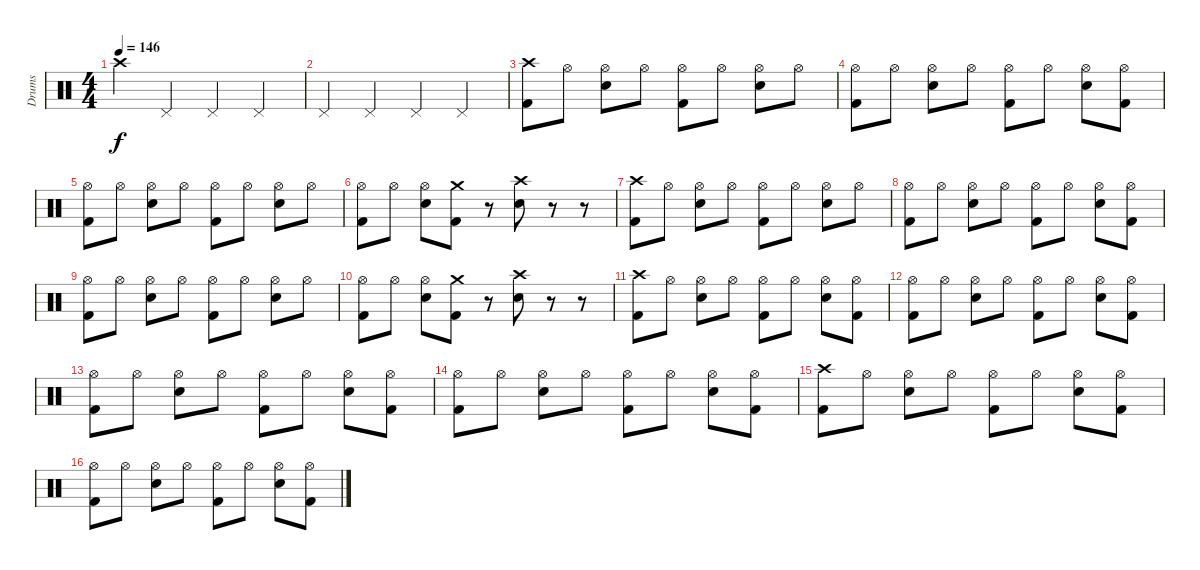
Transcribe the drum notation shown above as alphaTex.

\track ("Drums" "Drums") {instrument percussion}
\staff {score}
\articulation defaults
\ts (4 4)
\tempo 146
\clef neutral
\ks c "Crash high (hit)".4{dy f} "Pedal Hi-Hat (hit)".4 "Pedal Hi-Hat (hit)".4 "Pedal Hi-Hat (hit)".4
|
"Pedal Hi-Hat (hit)".4 "Pedal Hi-Hat (hit)".4 "Pedal Hi-Hat (hit)".4 "Pedal Hi-Hat (hit)".4 |
("Crash high (hit)" "Kick (hit) 2").8 "Hi-Hat (open)".8 ("Hi-Hat (open)" "Snare (hit) 2").8 "Hi-Hat (open)".8 ("Hi-Hat (open)" "Kick (hit) 2").8 "Hi-Hat (open)".8 ("Hi-Hat (open)" "Snare (hit) 2").8 "Hi-Hat (open)".8 |
("Hi-Hat (open)" "Kick (hit) 2").8 "Hi-Hat (open)".8 ("Hi-Hat (open)" "Snare (hit) 2").8 "Hi-Hat (open)".8 ("Hi-Hat (open)" "Kick (hit) 2").8 "Hi-Hat (open)".8 ("Hi-Hat (open)" "Snare (hit) 2").8 ("Hi-Hat (open)" "Kick (hit) 2").8 |
("Hi-Hat (open)" "Kick (hit) 2").8 "Hi-Hat (open)".8 ("Hi-Hat (open)" "Snare (hit) 2").8 "Hi-Hat (open)".8 ("Hi-Hat (open)" "Kick (hit) 2").8 "Hi-Hat (open)".8 ("Hi-Hat (open)" "Snare (hit) 2").8 "Hi-Hat (open)".8 |
("Hi-Hat (open)" "Kick (hit) 2").8 "Hi-Hat (open)".8 ("Hi-Hat (open)" "Snare (hit) 2").8 ("Crash medium (hit)" "Kick (hit) 2").8 r.8 ("Crash high (hit)" "Snare (hit) 2").8 r.8 r.8 |
("Crash high (hit)" "Kick (hit) 2").8 "Hi-Hat (open)".8 ("Hi-Hat (open)" "Snare (hit) 2").8 "Hi-Hat (open)".8 ("Hi-Hat (open)" "Kick (hit) 2").8 "Hi-Hat (open)".8 ("Hi-Hat (open)" "Snare (hit) 2").8 "Hi-Hat (open)".8 |
("Hi-Hat (open)" "Kick (hit) 2").8 "Hi-Hat (open)".8 ("Hi-Hat (open)" "Snare (hit) 2").8 "Hi-Hat (open)".8 ("Hi-Hat (open)" "Kick (hit) 2").8 "Hi-Hat (open)".8 ("Hi-Hat (open)" "Snare (hit) 2").8 ("Hi-Hat (open)" "Kick (hit) 2").8 |
("Hi-Hat (open)" "Kick (hit) 2").8 "Hi-Hat (open)".8 ("Hi-Hat (open)" "Snare (hit) 2").8 "Hi-Hat (open)".8 ("Hi-Hat (open)" "Kick (hit) 2").8 "Hi-Hat (open)".8 ("Hi-Hat (open)" "Snare (hit) 2").8 "Hi-Hat (open)".8 |
("Hi-Hat (open)" "Kick (hit) 2").8 "Hi-Hat (open)".8 ("Hi-Hat (open)" "Snare (hit) 2").8 ("Crash medium (hit)" "Kick (hit) 2").8 r.8 ("Crash high (hit)" "Snare (hit) 2").8 r.8 r.8 |
("Crash high (hit)" "Kick (hit) 2").8 "Hi-Hat (open)".8 ("Hi-Hat (open)" "Snare (hit) 2").8 "Hi-Hat (open)".8 ("Hi-Hat (open)" "Kick (hit) 2").8 "Hi-Hat (open)".8 ("Hi-Hat (open)" "Snare (hit) 2").8 ("Hi-Hat (open)" "Kick (hit) 2").8 |
("Hi-Hat (open)" "Kick (hit) 2").8 "Hi-Hat (open)".8 ("Hi-Hat (open)" "Snare (hit) 2").8 "Hi-Hat (open)".8 ("Hi-Hat (open)" "Kick (hit) 2").8 "Hi-Hat (open)".8 ("Hi-Hat (open)" "Snare (hit) 2").8 ("Hi-Hat (open)" "Kick (hit) 2").8 |
("Hi-Hat (open)" "Kick (hit) 2").8 "Hi-Hat (open)".8 ("Hi-Hat (open)" "Snare (hit) 2").8 "Hi-Hat (open)".8 ("Hi-Hat (open)" "Kick (hit) 2").8 "Hi-Hat (open)".8 ("Hi-Hat (open)" "Snare (hit) 2").8 ("Hi-Hat (open)" "Kick (hit) 2").8 |
("Hi-Hat (open)" "Kick (hit) 2").8 "Hi-Hat (open)".8 ("Hi-Hat (open)" "Snare (hit) 2").8 "Hi-Hat (open)".8 ("Hi-Hat (open)" "Kick (hit) 2").8 "Hi-Hat (open)".8 ("Hi-Hat (open)" "Snare (hit) 2").8 ("Hi-Hat (open)" "Kick (hit) 2").8 |
("Crash high (hit)" "Kick (hit) 2").8 "Hi-Hat (open)".8 ("Hi-Hat (open)" "Snare (hit) 2").8 "Hi-Hat (open)".8 ("Hi-Hat (open)" "Kick (hit) 2").8 "Hi-Hat (open)".8 ("Hi-Hat (open)" "Snare (hit) 2").8 ("Hi-Hat (open)" "Kick (hit) 2").8 |
("Hi-Hat (open)" "Kick (hit) 2").8 "Hi-Hat (open)".8 ("Hi-Hat (open)" "Snare (hit) 2").8 "Hi-Hat (open)".8 ("Hi-Hat (open)" "Kick (hit) 2").8 "Hi-Hat (open)".8 ("Hi-Hat (open)" "Snare (hit) 2").8 ("Hi-Hat (open)" "Kick (hit) 2").8
